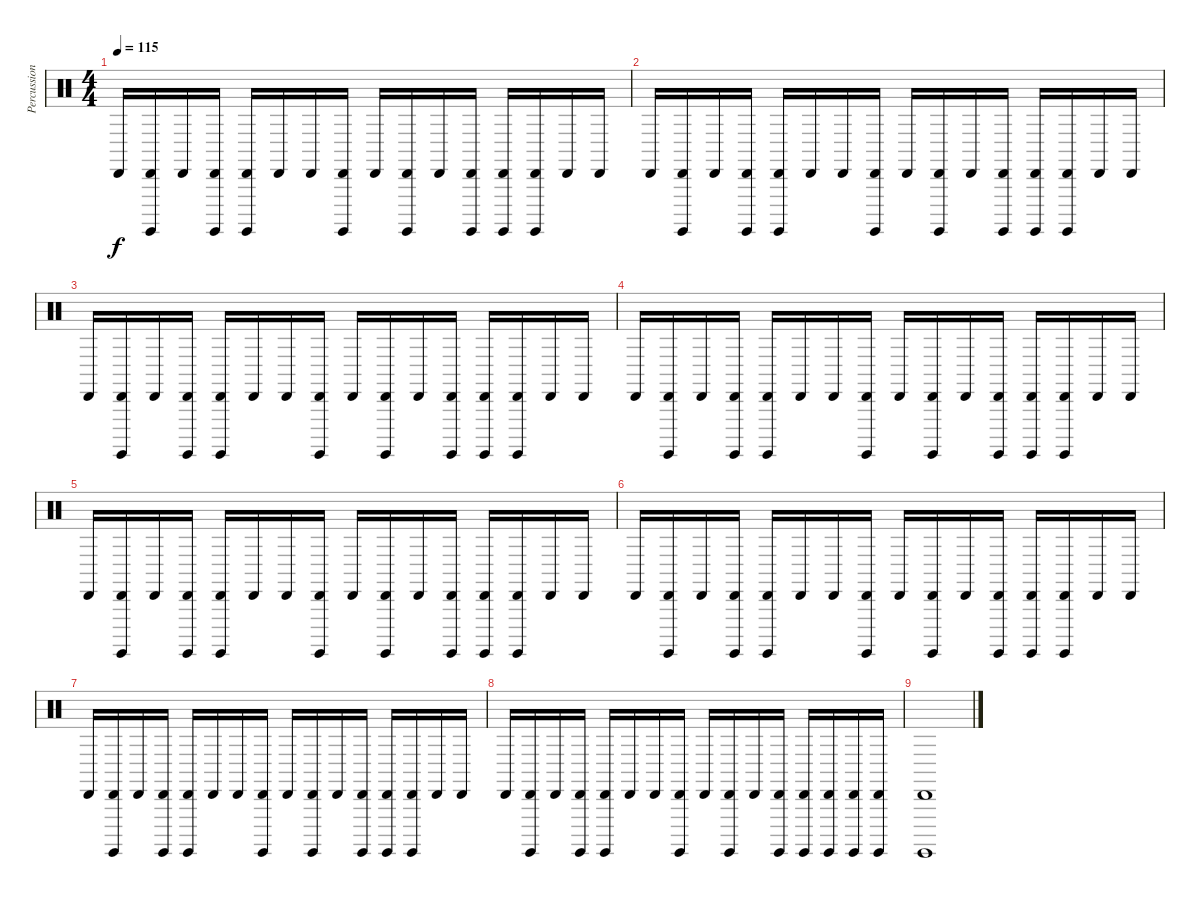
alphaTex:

\track ("Percussion" "Percussion") {instrument percussion}
\staff {score}
\articulation defaults
\ts (4 4)
\tempo 115
\clef neutral
\ks c "Cabasa (hit)".16{dy f}
("Cabasa (hit)" "Surdo (hit)").16 "Cabasa (hit)".16 ("Cabasa (hit)" "Surdo (hit)").16 ("Cabasa (hit)" "Surdo (hit)").16 "Cabasa (hit)".16 "Cabasa (hit)".16 ("Cabasa (hit)" "Surdo (hit)").16 "Cabasa (hit)".16 ("Cabasa (hit)" "Surdo (hit)").16 "Cabasa (hit)".16 ("Cabasa (hit)" "Surdo (hit)").16 ("Cabasa (hit)" "Surdo (hit)").16 ("Cabasa (hit)" "Surdo (hit)").16 "Cabasa (hit)".16 "Cabasa (hit)".16 |
"Cabasa (hit)".16 ("Cabasa (hit)" "Surdo (hit)").16 "Cabasa (hit)".16 ("Cabasa (hit)" "Surdo (hit)").16 ("Cabasa (hit)" "Surdo (hit)").16 "Cabasa (hit)".16 "Cabasa (hit)".16 ("Cabasa (hit)" "Surdo (hit)").16 "Cabasa (hit)".16 ("Cabasa (hit)" "Surdo (hit)").16 "Cabasa (hit)".16 ("Cabasa (hit)" "Surdo (hit)").16 ("Cabasa (hit)" "Surdo (hit)").16 ("Cabasa (hit)" "Surdo (hit)").16 "Cabasa (hit)".16 "Cabasa (hit)".16 |
"Cabasa (hit)".16 ("Cabasa (hit)" "Surdo (hit)").16 "Cabasa (hit)".16 ("Cabasa (hit)" "Surdo (hit)").16 ("Cabasa (hit)" "Surdo (hit)").16 "Cabasa (hit)".16 "Cabasa (hit)".16 ("Cabasa (hit)" "Surdo (hit)").16 "Cabasa (hit)".16 ("Cabasa (hit)" "Surdo (hit)").16 "Cabasa (hit)".16 ("Cabasa (hit)" "Surdo (hit)").16 ("Cabasa (hit)" "Surdo (hit)").16 ("Cabasa (hit)" "Surdo (hit)").16 "Cabasa (hit)".16 "Cabasa (hit)".16 |
"Cabasa (hit)".16 ("Cabasa (hit)" "Surdo (hit)").16 "Cabasa (hit)".16 ("Cabasa (hit)" "Surdo (hit)").16 ("Cabasa (hit)" "Surdo (hit)").16 "Cabasa (hit)".16 "Cabasa (hit)".16 ("Cabasa (hit)" "Surdo (hit)").16 "Cabasa (hit)".16 ("Cabasa (hit)" "Surdo (hit)").16 "Cabasa (hit)".16 ("Cabasa (hit)" "Surdo (hit)").16 ("Cabasa (hit)" "Surdo (hit)").16 ("Cabasa (hit)" "Surdo (hit)").16 "Cabasa (hit)".16 "Cabasa (hit)".16 |
"Cabasa (hit)".16 ("Cabasa (hit)" "Surdo (hit)").16 "Cabasa (hit)".16 ("Cabasa (hit)" "Surdo (hit)").16 ("Cabasa (hit)" "Surdo (hit)").16 "Cabasa (hit)".16 "Cabasa (hit)".16 ("Cabasa (hit)" "Surdo (hit)").16 "Cabasa (hit)".16 ("Cabasa (hit)" "Surdo (hit)").16 "Cabasa (hit)".16 ("Cabasa (hit)" "Surdo (hit)").16 ("Cabasa (hit)" "Surdo (hit)").16 ("Cabasa (hit)" "Surdo (hit)").16 "Cabasa (hit)".16 "Cabasa (hit)".16 |
"Cabasa (hit)".16 ("Cabasa (hit)" "Surdo (hit)").16 "Cabasa (hit)".16 ("Cabasa (hit)" "Surdo (hit)").16 ("Cabasa (hit)" "Surdo (hit)").16 "Cabasa (hit)".16 "Cabasa (hit)".16 ("Cabasa (hit)" "Surdo (hit)").16 "Cabasa (hit)".16 ("Cabasa (hit)" "Surdo (hit)").16 "Cabasa (hit)".16 ("Cabasa (hit)" "Surdo (hit)").16 ("Cabasa (hit)" "Surdo (hit)").16 ("Cabasa (hit)" "Surdo (hit)").16 "Cabasa (hit)".16 "Cabasa (hit)".16 |
"Cabasa (hit)".16 ("Cabasa (hit)" "Surdo (hit)").16 "Cabasa (hit)".16 ("Cabasa (hit)" "Surdo (hit)").16 ("Cabasa (hit)" "Surdo (hit)").16 "Cabasa (hit)".16 "Cabasa (hit)".16 ("Cabasa (hit)" "Surdo (hit)").16 "Cabasa (hit)".16 ("Cabasa (hit)" "Surdo (hit)").16 "Cabasa (hit)".16 ("Cabasa (hit)" "Surdo (hit)").16 ("Cabasa (hit)" "Surdo (hit)").16 ("Cabasa (hit)" "Surdo (hit)").16 "Cabasa (hit)".16 "Cabasa (hit)".16 |
"Cabasa (hit)".16 ("Cabasa (hit)" "Surdo (hit)").16 "Cabasa (hit)".16 ("Cabasa (hit)" "Surdo (hit)").16 ("Cabasa (hit)" "Surdo (hit)").16 "Cabasa (hit)".16 "Cabasa (hit)".16 ("Cabasa (hit)" "Surdo (hit)").16 "Cabasa (hit)".16 ("Cabasa (hit)" "Surdo (hit)").16 "Cabasa (hit)".16 ("Cabasa (hit)" "Surdo (hit)").16 ("Cabasa (hit)" "Surdo (hit)").16 ("Cabasa (hit)" "Surdo (hit)").16 ("Cabasa (hit)" "Surdo (hit)").16 ("Cabasa (hit)" "Surdo (hit)").16 |
("Cabasa (hit)" "Surdo (hit)").1
